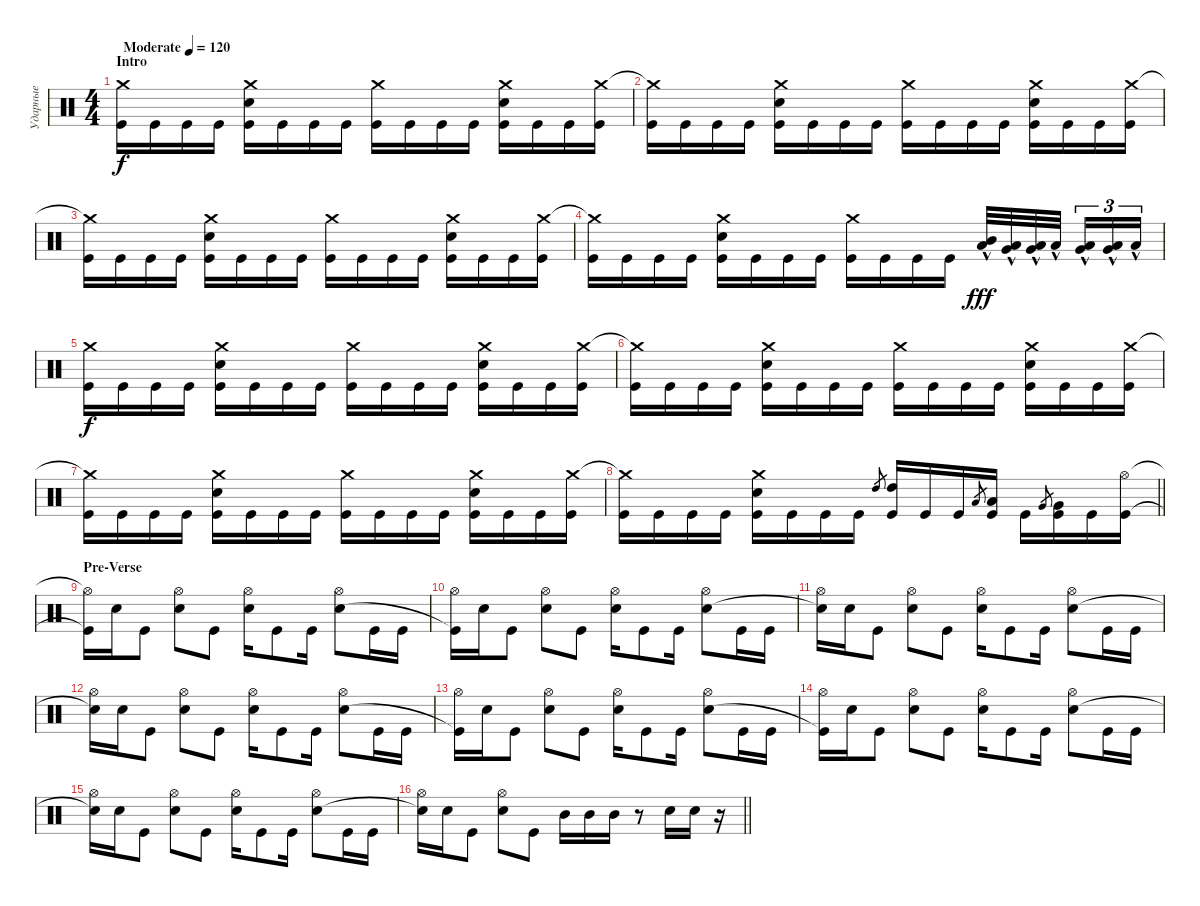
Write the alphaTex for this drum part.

\track ("Ударные" "Ударные") {instrument percussion}
\staff {score}
\articulation defaults
\ts (4 4)
\section ("" "Intro")
\tempo (120 "Moderate")
\clef neutral
\ks c
("Crash medium (hit)" "Kick (hit)").16{dy f} "Kick (hit)".16 "Kick (hit)".16 "Kick (hit)".16 ("Crash medium (hit)" "Electric Snare (hit)" "Kick (hit)").16 "Kick (hit)".16 "Kick (hit)".16 "Kick (hit)".16 ("Crash medium (hit)" "Kick (hit)").16 "Kick (hit)".16 "Kick (hit)".16 "Kick (hit)".16 ("Crash medium (hit)" "Electric Snare (hit)" "Kick (hit)").16 "Kick (hit)".16 "Kick (hit)".16 ("Crash medium (hit)" "Kick (hit)").16 |
("Crash medium (hit)"{t} "Kick (hit)").16 "Kick (hit)".16 "Kick (hit)".16 "Kick (hit)".16 ("Crash medium (hit)" "Electric Snare (hit)" "Kick (hit)").16 "Kick (hit)".16 "Kick (hit)".16 "Kick (hit)".16 ("Crash medium (hit)" "Kick (hit)").16 "Kick (hit)".16 "Kick (hit)".16 "Kick (hit)".16 ("Crash medium (hit)" "Electric Snare (hit)" "Kick (hit)").16 "Kick (hit)".16 "Kick (hit)".16 ("Crash medium (hit)" "Kick (hit)").16 |
("Crash medium (hit)"{t} "Kick (hit)").16 "Kick (hit)".16 "Kick (hit)".16 "Kick (hit)".16 ("Crash medium (hit)" "Electric Snare (hit)" "Kick (hit)").16 "Kick (hit)".16 "Kick (hit)".16 "Kick (hit)".16 ("Crash medium (hit)" "Kick (hit)").16 "Kick (hit)".16 "Kick (hit)".16 "Kick (hit)".16 ("Crash medium (hit)" "Electric Snare (hit)" "Kick (hit)").16 "Kick (hit)".16 "Kick (hit)".16 ("Crash medium (hit)" "Kick (hit)").16 |
("Crash medium (hit)"{t} "Kick (hit)").16 "Kick (hit)".16 "Kick (hit)".16 "Kick (hit)".16 ("Crash medium (hit)" "Electric Snare (hit)" "Kick (hit)").16 "Kick (hit)".16 "Kick (hit)".16 "Kick (hit)".16 ("Crash medium (hit)" "Kick (hit)").16 "Kick (hit)".16 "Kick (hit)".16 "Kick (hit)".16 ("Mid Tom (hit)"{hac} "Low Tom (hit)"{hac}).32{dy fff} ("Low Tom (hit)"{hac} "Very Low Tom (hit)"{hac}).32 ("Very Low Tom (hit)"{hac} "Low Floor Tom (hit)"{hac}).32 "Low Floor Tom (hit)"{hac}.32{beam splitsecondary} ("Low Tom (hit)"{hac} "Very Low Tom (hit)"{hac}).16{tu (3 2)} ("Very Low Tom (hit)"{hac} "Low Floor Tom (hit)"{hac}).16{tu (3 2)} "Low Floor Tom (hit)"{hac}.16{tu (3 2)} |
("Crash medium (hit)" "Kick (hit)").16{dy f} "Kick (hit)".16 "Kick (hit)".16 "Kick (hit)".16 ("Crash medium (hit)" "Electric Snare (hit)" "Kick (hit)").16 "Kick (hit)".16 "Kick (hit)".16 "Kick (hit)".16 ("Crash medium (hit)" "Kick (hit)").16 "Kick (hit)".16 "Kick (hit)".16 "Kick (hit)".16 ("Crash medium (hit)" "Electric Snare (hit)" "Kick (hit)").16 "Kick (hit)".16 "Kick (hit)".16 ("Crash medium (hit)" "Kick (hit)").16 |
("Crash medium (hit)"{t} "Kick (hit)").16 "Kick (hit)".16 "Kick (hit)".16 "Kick (hit)".16 ("Crash medium (hit)" "Electric Snare (hit)" "Kick (hit)").16 "Kick (hit)".16 "Kick (hit)".16 "Kick (hit)".16 ("Crash medium (hit)" "Kick (hit)").16 "Kick (hit)".16 "Kick (hit)".16 "Kick (hit)".16 ("Crash medium (hit)" "Electric Snare (hit)" "Kick (hit)").16 "Kick (hit)".16 "Kick (hit)".16 ("Crash medium (hit)" "Kick (hit)").16 |
("Crash medium (hit)"{t} "Kick (hit)").16 "Kick (hit)".16 "Kick (hit)".16 "Kick (hit)".16 ("Crash medium (hit)" "Electric Snare (hit)" "Kick (hit)").16 "Kick (hit)".16 "Kick (hit)".16 "Kick (hit)".16 ("Crash medium (hit)" "Kick (hit)").16 "Kick (hit)".16 "Kick (hit)".16 "Kick (hit)".16 ("Crash medium (hit)" "Electric Snare (hit)" "Kick (hit)").16 "Kick (hit)".16 "Kick (hit)".16 ("Crash medium (hit)" "Kick (hit)").16 |
\barLineRight lightlight
("Crash medium (hit)"{t} "Kick (hit)").16 "Kick (hit)".16 "Kick (hit)".16 "Kick (hit)".16 ("Crash medium (hit)" "Electric Snare (hit)" "Kick (hit)").16 "Kick (hit)".16 "Kick (hit)".16 "Kick (hit)".16 "High Tom (hit)".8{gr} ("High Tom (hit)" "Kick (hit)").16 "Kick (hit)".16 "Kick (hit)".16 "Low Tom (hit)".8{gr} ("Low Tom (hit)" "Kick (hit)").16 "Kick (hit)".16 "Very Low Tom (hit)".8{gr} ("Very Low Tom (hit)" "Kick (hit)").16 "Kick (hit)".16 ("Hi-Hat (open)" "Kick (hit)").16 |
\section ("" "Pre-Verse")
("Hi-Hat (open)"{t} "Kick (hit)"{t}).16 "Electric Snare (hit)".16 "Kick (hit)".8 ("Hi-Hat (open)" "Electric Snare (hit)").8 "Kick (hit)".8 ("Hi-Hat (open)" "Electric Snare (hit)").16 "Kick (hit)".8 "Kick (hit)".16 ("Hi-Hat (open)" "Electric Snare (hit)").8 "Kick (hit)".16 "Kick (hit)".16 |
("Hi-Hat (open)" "Kick (hit)"{t}).16 "Electric Snare (hit)".16 "Kick (hit)".8 ("Hi-Hat (open)" "Electric Snare (hit)").8 "Kick (hit)".8 ("Hi-Hat (open)" "Electric Snare (hit)").16 "Kick (hit)".8 "Kick (hit)".16 ("Hi-Hat (open)" "Electric Snare (hit)").8 "Kick (hit)".16 "Kick (hit)".16 |
("Hi-Hat (open)" "Snare (hit)"{t}).16 "Electric Snare (hit)".16 "Kick (hit)".8 ("Hi-Hat (open)" "Electric Snare (hit)").8 "Kick (hit)".8 ("Hi-Hat (open)" "Electric Snare (hit)").16 "Kick (hit)".8 "Kick (hit)".16 ("Hi-Hat (open)" "Electric Snare (hit)").8 "Kick (hit)".16 "Kick (hit)".16 |
("Hi-Hat (open)" "Snare (hit)"{t}).16 "Electric Snare (hit)".16 "Kick (hit)".8 ("Hi-Hat (open)" "Electric Snare (hit)").8 "Kick (hit)".8 ("Hi-Hat (open)" "Electric Snare (hit)").16 "Kick (hit)".8 "Kick (hit)".16 ("Hi-Hat (open)" "Electric Snare (hit)").8 "Kick (hit)".16 "Kick (hit)".16 |
("Hi-Hat (open)" "Kick (hit)"{t}).16 "Electric Snare (hit)".16 "Kick (hit)".8 ("Hi-Hat (open)" "Electric Snare (hit)").8 "Kick (hit)".8 ("Hi-Hat (open)" "Electric Snare (hit)").16 "Kick (hit)".8 "Kick (hit)".16 ("Hi-Hat (open)" "Electric Snare (hit)").8 "Kick (hit)".16 "Kick (hit)".16 |
("Hi-Hat (open)" "Kick (hit)"{t}).16 "Electric Snare (hit)".16 "Kick (hit)".8 ("Hi-Hat (open)" "Electric Snare (hit)").8 "Kick (hit)".8 ("Hi-Hat (open)" "Electric Snare (hit)").16 "Kick (hit)".8 "Kick (hit)".16 ("Hi-Hat (open)" "Electric Snare (hit)").8 "Kick (hit)".16 "Kick (hit)".16 |
("Hi-Hat (open)" "Snare (hit)"{t}).16 "Electric Snare (hit)".16 "Kick (hit)".8 ("Hi-Hat (open)" "Electric Snare (hit)").8 "Kick (hit)".8 ("Hi-Hat (open)" "Electric Snare (hit)").16 "Kick (hit)".8 "Kick (hit)".16 ("Hi-Hat (open)" "Electric Snare (hit)").8 "Kick (hit)".16 "Kick (hit)".16 |
\barLineRight lightlight
("Hi-Hat (open)" "Snare (hit)"{t}).16 "Electric Snare (hit)".16 "Kick (hit)".8 ("Hi-Hat (open)" "Electric Snare (hit)").8 "Kick (hit)".8 "Mid Tom (hit)".16 "Mid Tom (hit)".16 "Mid Tom (hit)".16 r.8 "Electric Snare (hit)".16 "Electric Snare (hit)".16 r.16
